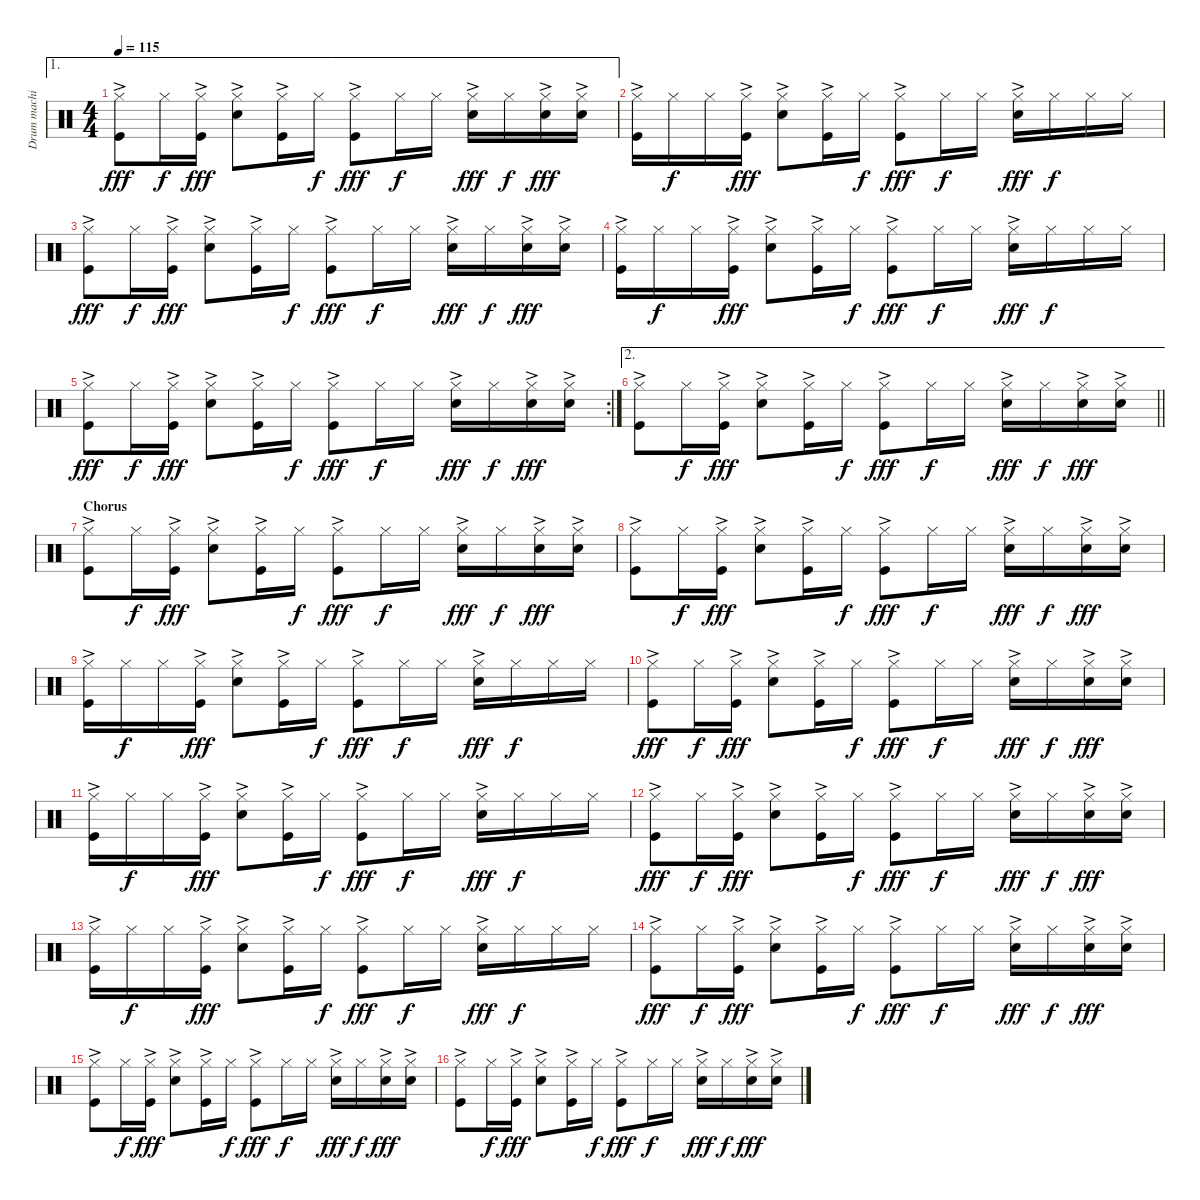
\track ("Drum machine" "Drum machi") {instrument percussion}
\staff {score}
\articulation defaults
\ae 1
\ts (4 4)
\tempo 115
\clef neutral
\ks c
("Hi-Hat (closed)" "Kick (hit)"{ac}).8{dy fff} "Hi-Hat (closed)".16{dy f} ("Hi-Hat (closed)" "Kick (hit)"{ac}).16{dy fff} ("Hi-Hat (closed)" "Snare (hit) 2"{ac}).8 ("Hi-Hat (closed)" "Kick (hit)"{ac}).16 "Hi-Hat (closed)".16{dy f} ("Hi-Hat (closed)" "Kick (hit)"{ac}).8{dy fff} "Hi-Hat (closed)".16{dy f} "Hi-Hat (closed)".16 ("Hi-Hat (closed)" "Snare (hit) 2"{ac}).16{dy fff} "Hi-Hat (closed)".16{dy f} ("Hi-Hat (closed)" "Snare (hit) 2"{ac}).16{dy fff} ("Hi-Hat (closed)" "Snare (hit) 2"{ac}).16 |
("Hi-Hat (closed)" "Kick (hit)"{ac}).16 "Hi-Hat (closed)".16{dy f} "Hi-Hat (closed)".16 ("Hi-Hat (closed)" "Kick (hit)"{ac}).16{dy fff} ("Hi-Hat (closed)" "Snare (hit) 2"{ac}).8 ("Hi-Hat (closed)" "Kick (hit)"{ac}).16 "Hi-Hat (closed)".16{dy f} ("Hi-Hat (closed)" "Kick (hit)"{ac}).8{dy fff} "Hi-Hat (closed)".16{dy f} "Hi-Hat (closed)".16 ("Hi-Hat (closed)" "Snare (hit) 2"{ac}).16{dy fff} "Hi-Hat (closed)".16{dy f} "Hi-Hat (closed)".16 "Hi-Hat (closed)".16 |
("Hi-Hat (closed)" "Kick (hit)"{ac}).8{dy fff} "Hi-Hat (closed)".16{dy f} ("Hi-Hat (closed)" "Kick (hit)"{ac}).16{dy fff} ("Hi-Hat (closed)" "Snare (hit) 2"{ac}).8 ("Hi-Hat (closed)" "Kick (hit)"{ac}).16 "Hi-Hat (closed)".16{dy f} ("Hi-Hat (closed)" "Kick (hit)"{ac}).8{dy fff} "Hi-Hat (closed)".16{dy f} "Hi-Hat (closed)".16 ("Hi-Hat (closed)" "Snare (hit) 2"{ac}).16{dy fff} "Hi-Hat (closed)".16{dy f} ("Hi-Hat (closed)" "Snare (hit) 2"{ac}).16{dy fff} ("Hi-Hat (closed)" "Snare (hit) 2"{ac}).16 |
("Hi-Hat (closed)" "Kick (hit)"{ac}).16 "Hi-Hat (closed)".16{dy f} "Hi-Hat (closed)".16 ("Hi-Hat (closed)" "Kick (hit)"{ac}).16{dy fff} ("Hi-Hat (closed)" "Snare (hit) 2"{ac}).8 ("Hi-Hat (closed)" "Kick (hit)"{ac}).16 "Hi-Hat (closed)".16{dy f} ("Hi-Hat (closed)" "Kick (hit)"{ac}).8{dy fff} "Hi-Hat (closed)".16{dy f} "Hi-Hat (closed)".16 ("Hi-Hat (closed)" "Snare (hit) 2"{ac}).16{dy fff} "Hi-Hat (closed)".16{dy f} "Hi-Hat (closed)".16 "Hi-Hat (closed)".16 |
\rc 2
("Hi-Hat (closed)" "Kick (hit)"{ac}).8{dy fff} "Hi-Hat (closed)".16{dy f} ("Hi-Hat (closed)" "Kick (hit)"{ac}).16{dy fff} ("Hi-Hat (closed)" "Snare (hit) 2"{ac}).8 ("Hi-Hat (closed)" "Kick (hit)"{ac}).16 "Hi-Hat (closed)".16{dy f} ("Hi-Hat (closed)" "Kick (hit)"{ac}).8{dy fff} "Hi-Hat (closed)".16{dy f} "Hi-Hat (closed)".16 ("Hi-Hat (closed)" "Snare (hit) 2"{ac}).16{dy fff} "Hi-Hat (closed)".16{dy f} ("Hi-Hat (closed)" "Snare (hit) 2"{ac}).16{dy fff} ("Hi-Hat (closed)" "Snare (hit) 2"{ac}).16 |
\ae 2
\barLineRight lightlight
("Hi-Hat (closed)" "Kick (hit)"{ac}).8 "Hi-Hat (closed)".16{dy f} ("Hi-Hat (closed)" "Kick (hit)"{ac}).16{dy fff} ("Hi-Hat (closed)" "Snare (hit) 2"{ac}).8 ("Hi-Hat (closed)" "Kick (hit)"{ac}).16 "Hi-Hat (closed)".16{dy f} ("Hi-Hat (closed)" "Kick (hit)"{ac}).8{dy fff} "Hi-Hat (closed)".16{dy f} "Hi-Hat (closed)".16 ("Hi-Hat (closed)" "Snare (hit) 2"{ac}).16{dy fff} "Hi-Hat (closed)".16{dy f} ("Hi-Hat (closed)" "Snare (hit) 2"{ac}).16{dy fff} ("Hi-Hat (closed)" "Snare (hit) 2"{ac}).16 |
\section ("" "Chorus")
("Hi-Hat (closed)" "Kick (hit)"{ac}).8 "Hi-Hat (closed)".16{dy f} ("Hi-Hat (closed)" "Kick (hit)"{ac}).16{dy fff} ("Hi-Hat (closed)" "Snare (hit) 2"{ac}).8 ("Hi-Hat (closed)" "Kick (hit)"{ac}).16 "Hi-Hat (closed)".16{dy f} ("Hi-Hat (closed)" "Kick (hit)"{ac}).8{dy fff} "Hi-Hat (closed)".16{dy f} "Hi-Hat (closed)".16 ("Hi-Hat (closed)" "Snare (hit) 2"{ac}).16{dy fff} "Hi-Hat (closed)".16{dy f} ("Hi-Hat (closed)" "Snare (hit) 2"{ac}).16{dy fff} ("Hi-Hat (closed)" "Snare (hit) 2"{ac}).16 |
("Hi-Hat (closed)" "Kick (hit)"{ac}).8 "Hi-Hat (closed)".16{dy f} ("Hi-Hat (closed)" "Kick (hit)"{ac}).16{dy fff} ("Hi-Hat (closed)" "Snare (hit) 2"{ac}).8 ("Hi-Hat (closed)" "Kick (hit)"{ac}).16 "Hi-Hat (closed)".16{dy f} ("Hi-Hat (closed)" "Kick (hit)"{ac}).8{dy fff} "Hi-Hat (closed)".16{dy f} "Hi-Hat (closed)".16 ("Hi-Hat (closed)" "Snare (hit) 2"{ac}).16{dy fff} "Hi-Hat (closed)".16{dy f} ("Hi-Hat (closed)" "Snare (hit) 2"{ac}).16{dy fff} ("Hi-Hat (closed)" "Snare (hit) 2"{ac}).16 |
("Hi-Hat (closed)" "Kick (hit)"{ac}).16 "Hi-Hat (closed)".16{dy f} "Hi-Hat (closed)".16 ("Hi-Hat (closed)" "Kick (hit)"{ac}).16{dy fff} ("Hi-Hat (closed)" "Snare (hit) 2"{ac}).8 ("Hi-Hat (closed)" "Kick (hit)"{ac}).16 "Hi-Hat (closed)".16{dy f} ("Hi-Hat (closed)" "Kick (hit)"{ac}).8{dy fff} "Hi-Hat (closed)".16{dy f} "Hi-Hat (closed)".16 ("Hi-Hat (closed)" "Snare (hit) 2"{ac}).16{dy fff} "Hi-Hat (closed)".16{dy f} "Hi-Hat (closed)".16 "Hi-Hat (closed)".16 |
("Hi-Hat (closed)" "Kick (hit)"{ac}).8{dy fff} "Hi-Hat (closed)".16{dy f} ("Hi-Hat (closed)" "Kick (hit)"{ac}).16{dy fff} ("Hi-Hat (closed)" "Snare (hit) 2"{ac}).8 ("Hi-Hat (closed)" "Kick (hit)"{ac}).16 "Hi-Hat (closed)".16{dy f} ("Hi-Hat (closed)" "Kick (hit)"{ac}).8{dy fff} "Hi-Hat (closed)".16{dy f} "Hi-Hat (closed)".16 ("Hi-Hat (closed)" "Snare (hit) 2"{ac}).16{dy fff} "Hi-Hat (closed)".16{dy f} ("Hi-Hat (closed)" "Snare (hit) 2"{ac}).16{dy fff} ("Hi-Hat (closed)" "Snare (hit) 2"{ac}).16 |
("Hi-Hat (closed)" "Kick (hit)"{ac}).16 "Hi-Hat (closed)".16{dy f} "Hi-Hat (closed)".16 ("Hi-Hat (closed)" "Kick (hit)"{ac}).16{dy fff} ("Hi-Hat (closed)" "Snare (hit) 2"{ac}).8 ("Hi-Hat (closed)" "Kick (hit)"{ac}).16 "Hi-Hat (closed)".16{dy f} ("Hi-Hat (closed)" "Kick (hit)"{ac}).8{dy fff} "Hi-Hat (closed)".16{dy f} "Hi-Hat (closed)".16 ("Hi-Hat (closed)" "Snare (hit) 2"{ac}).16{dy fff} "Hi-Hat (closed)".16{dy f} "Hi-Hat (closed)".16 "Hi-Hat (closed)".16 |
("Hi-Hat (closed)" "Kick (hit)"{ac}).8{dy fff} "Hi-Hat (closed)".16{dy f} ("Hi-Hat (closed)" "Kick (hit)"{ac}).16{dy fff} ("Hi-Hat (closed)" "Snare (hit) 2"{ac}).8 ("Hi-Hat (closed)" "Kick (hit)"{ac}).16 "Hi-Hat (closed)".16{dy f} ("Hi-Hat (closed)" "Kick (hit)"{ac}).8{dy fff} "Hi-Hat (closed)".16{dy f} "Hi-Hat (closed)".16 ("Hi-Hat (closed)" "Snare (hit) 2"{ac}).16{dy fff} "Hi-Hat (closed)".16{dy f} ("Hi-Hat (closed)" "Snare (hit) 2"{ac}).16{dy fff} ("Hi-Hat (closed)" "Snare (hit) 2"{ac}).16 |
("Hi-Hat (closed)" "Kick (hit)"{ac}).16 "Hi-Hat (closed)".16{dy f} "Hi-Hat (closed)".16 ("Hi-Hat (closed)" "Kick (hit)"{ac}).16{dy fff} ("Hi-Hat (closed)" "Snare (hit) 2"{ac}).8 ("Hi-Hat (closed)" "Kick (hit)"{ac}).16 "Hi-Hat (closed)".16{dy f} ("Hi-Hat (closed)" "Kick (hit)"{ac}).8{dy fff} "Hi-Hat (closed)".16{dy f} "Hi-Hat (closed)".16 ("Hi-Hat (closed)" "Snare (hit) 2"{ac}).16{dy fff} "Hi-Hat (closed)".16{dy f} "Hi-Hat (closed)".16 "Hi-Hat (closed)".16 |
("Hi-Hat (closed)" "Kick (hit)"{ac}).8{dy fff} "Hi-Hat (closed)".16{dy f} ("Hi-Hat (closed)" "Kick (hit)"{ac}).16{dy fff} ("Hi-Hat (closed)" "Snare (hit) 2"{ac}).8 ("Hi-Hat (closed)" "Kick (hit)"{ac}).16 "Hi-Hat (closed)".16{dy f} ("Hi-Hat (closed)" "Kick (hit)"{ac}).8{dy fff} "Hi-Hat (closed)".16{dy f} "Hi-Hat (closed)".16 ("Hi-Hat (closed)" "Snare (hit) 2"{ac}).16{dy fff} "Hi-Hat (closed)".16{dy f} ("Hi-Hat (closed)" "Snare (hit) 2"{ac}).16{dy fff} ("Hi-Hat (closed)" "Snare (hit) 2"{ac}).16 |
("Hi-Hat (closed)" "Kick (hit)"{ac}).8 "Hi-Hat (closed)".16{dy f} ("Hi-Hat (closed)" "Kick (hit)"{ac}).16{dy fff} ("Hi-Hat (closed)" "Snare (hit) 2"{ac}).8 ("Hi-Hat (closed)" "Kick (hit)"{ac}).16 "Hi-Hat (closed)".16{dy f} ("Hi-Hat (closed)" "Kick (hit)"{ac}).8{dy fff} "Hi-Hat (closed)".16{dy f} "Hi-Hat (closed)".16 ("Hi-Hat (closed)" "Snare (hit) 2"{ac}).16{dy fff} "Hi-Hat (closed)".16{dy f} ("Hi-Hat (closed)" "Snare (hit) 2"{ac}).16{dy fff} ("Hi-Hat (closed)" "Snare (hit) 2"{ac}).16 |
("Hi-Hat (closed)" "Kick (hit)"{ac}).8 "Hi-Hat (closed)".16{dy f} ("Hi-Hat (closed)" "Kick (hit)"{ac}).16{dy fff} ("Hi-Hat (closed)" "Snare (hit) 2"{ac}).8 ("Hi-Hat (closed)" "Kick (hit)"{ac}).16 "Hi-Hat (closed)".16{dy f} ("Hi-Hat (closed)" "Kick (hit)"{ac}).8{dy fff} "Hi-Hat (closed)".16{dy f} "Hi-Hat (closed)".16 ("Hi-Hat (closed)" "Snare (hit) 2"{ac}).16{dy fff} "Hi-Hat (closed)".16{dy f} ("Hi-Hat (closed)" "Snare (hit) 2"{ac}).16{dy fff} ("Hi-Hat (closed)" "Snare (hit) 2"{ac}).16
